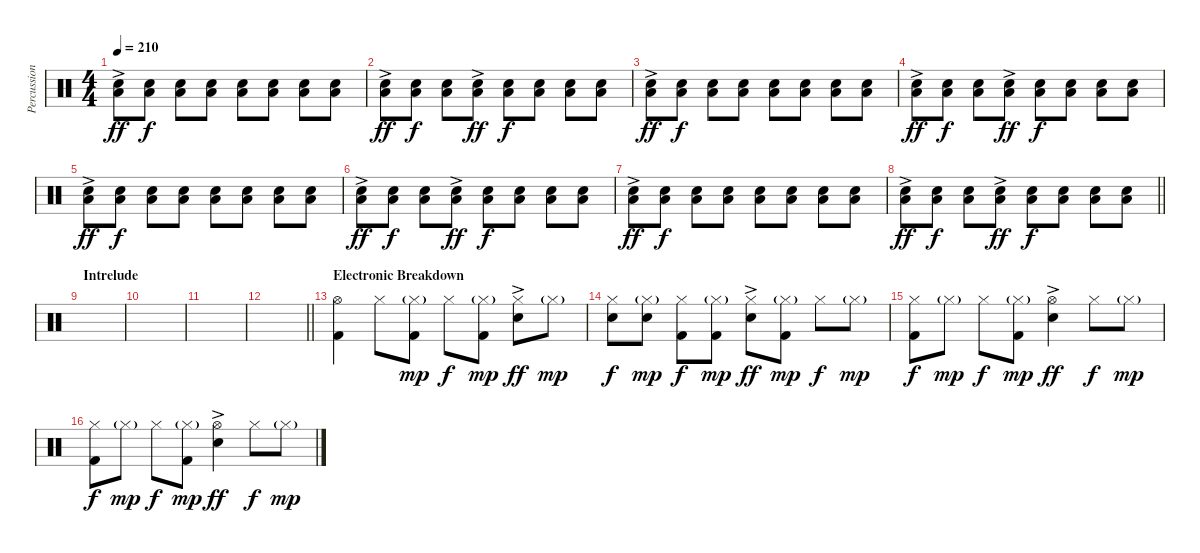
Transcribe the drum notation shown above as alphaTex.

\track ("Percussion" "Percussion") {instrument percussion}
\staff {score}
\articulation defaults
\ts (4 4)
\tempo 210
\clef neutral
\ks c
("Electric Snare (hit)"{ac} "Low Floor Tom (hit)"{ac}).8{dy ff} ("Electric Snare (hit)" "Low Floor Tom (hit)").8{dy f} ("Electric Snare (hit)" "Low Floor Tom (hit)").8 ("Electric Snare (hit)" "Low Floor Tom (hit)").8 ("Electric Snare (hit)" "Low Floor Tom (hit)").8 ("Electric Snare (hit)" "Low Floor Tom (hit)").8 ("Electric Snare (hit)" "Low Floor Tom (hit)").8 ("Electric Snare (hit)" "Low Floor Tom (hit)").8 |
("Electric Snare (hit)"{ac} "Low Floor Tom (hit)"{ac}).8{dy ff} ("Electric Snare (hit)" "Low Floor Tom (hit)").8{dy f} ("Electric Snare (hit)" "Low Floor Tom (hit)").8 ("Electric Snare (hit)"{ac} "Low Floor Tom (hit)"{ac}).8{dy ff} ("Electric Snare (hit)" "Low Floor Tom (hit)").8{dy f} ("Electric Snare (hit)" "Low Floor Tom (hit)").8 ("Electric Snare (hit)" "Low Floor Tom (hit)").8 ("Electric Snare (hit)" "Low Floor Tom (hit)").8 |
("Electric Snare (hit)"{ac} "Low Floor Tom (hit)"{ac}).8{dy ff} ("Electric Snare (hit)" "Low Floor Tom (hit)").8{dy f} ("Electric Snare (hit)" "Low Floor Tom (hit)").8 ("Electric Snare (hit)" "Low Floor Tom (hit)").8 ("Electric Snare (hit)" "Low Floor Tom (hit)").8 ("Electric Snare (hit)" "Low Floor Tom (hit)").8 ("Electric Snare (hit)" "Low Floor Tom (hit)").8 ("Electric Snare (hit)" "Low Floor Tom (hit)").8 |
("Electric Snare (hit)"{ac} "Low Floor Tom (hit)"{ac}).8{dy ff} ("Electric Snare (hit)" "Low Floor Tom (hit)").8{dy f} ("Electric Snare (hit)" "Low Floor Tom (hit)").8 ("Electric Snare (hit)"{ac} "Low Floor Tom (hit)"{ac}).8{dy ff} ("Electric Snare (hit)" "Low Floor Tom (hit)").8{dy f} ("Electric Snare (hit)" "Low Floor Tom (hit)").8 ("Electric Snare (hit)" "Low Floor Tom (hit)").8 ("Electric Snare (hit)" "Low Floor Tom (hit)").8 |
("Electric Snare (hit)"{ac} "Low Floor Tom (hit)"{ac}).8{dy ff} ("Electric Snare (hit)" "Low Floor Tom (hit)").8{dy f} ("Electric Snare (hit)" "Low Floor Tom (hit)").8 ("Electric Snare (hit)" "Low Floor Tom (hit)").8 ("Electric Snare (hit)" "Low Floor Tom (hit)").8 ("Electric Snare (hit)" "Low Floor Tom (hit)").8 ("Electric Snare (hit)" "Low Floor Tom (hit)").8 ("Electric Snare (hit)" "Low Floor Tom (hit)").8 |
("Electric Snare (hit)"{ac} "Low Floor Tom (hit)"{ac}).8{dy ff} ("Electric Snare (hit)" "Low Floor Tom (hit)").8{dy f} ("Electric Snare (hit)" "Low Floor Tom (hit)").8 ("Electric Snare (hit)"{ac} "Low Floor Tom (hit)"{ac}).8{dy ff} ("Electric Snare (hit)" "Low Floor Tom (hit)").8{dy f} ("Electric Snare (hit)" "Low Floor Tom (hit)").8 ("Electric Snare (hit)" "Low Floor Tom (hit)").8 ("Electric Snare (hit)" "Low Floor Tom (hit)").8 |
("Electric Snare (hit)"{ac} "Low Floor Tom (hit)"{ac}).8{dy ff} ("Electric Snare (hit)" "Low Floor Tom (hit)").8{dy f} ("Electric Snare (hit)" "Low Floor Tom (hit)").8 ("Electric Snare (hit)" "Low Floor Tom (hit)").8 ("Electric Snare (hit)" "Low Floor Tom (hit)").8 ("Electric Snare (hit)" "Low Floor Tom (hit)").8 ("Electric Snare (hit)" "Low Floor Tom (hit)").8 ("Electric Snare (hit)" "Low Floor Tom (hit)").8 |
\barLineRight lightlight
("Electric Snare (hit)"{ac} "Low Floor Tom (hit)"{ac}).8{dy ff} ("Electric Snare (hit)" "Low Floor Tom (hit)").8{dy f} ("Electric Snare (hit)" "Low Floor Tom (hit)").8 ("Electric Snare (hit)"{ac} "Low Floor Tom (hit)"{ac}).8{dy ff} ("Electric Snare (hit)" "Low Floor Tom (hit)").8{dy f} ("Electric Snare (hit)" "Low Floor Tom (hit)").8 ("Electric Snare (hit)" "Low Floor Tom (hit)").8 ("Electric Snare (hit)" "Low Floor Tom (hit)").8 |
\section ("" "Intrelude")
|
|
|
\barLineRight lightlight
|
\section ("" "Electronic Breakdown")
("Hi-Hat (open)" "Kick (hit) 2").4{volume 12} "Hi-Hat (closed)".8 ("Hi-Hat (closed)"{g} "Kick (hit) 2").8{dy mp} "Hi-Hat (closed)".8{dy f} ("Hi-Hat (closed)"{g} "Kick (hit) 2").8{dy mp} ("Hi-Hat (closed)" "Electric Snare (hit)"{ac}).8{dy ff} "Hi-Hat (closed)"{g}.8{dy mp} |
("Hi-Hat (closed)" "Electric Snare (hit)").8{dy f} ("Hi-Hat (closed)"{g} "Electric Snare (hit)").8{dy mp} ("Hi-Hat (closed)" "Kick (hit) 2").8{dy f} ("Hi-Hat (closed)"{g} "Kick (hit) 2").8{dy mp} ("Hi-Hat (closed)" "Electric Snare (hit)"{ac}).8{dy ff} ("Hi-Hat (closed)"{g} "Kick (hit) 2").8{dy mp} "Hi-Hat (closed)".8{dy f} "Hi-Hat (closed)"{g}.8{dy mp} |
("Hi-Hat (closed)" "Kick (hit) 2").8{dy f} "Hi-Hat (closed)"{g}.8{dy mp} "Hi-Hat (closed)".8{dy f} ("Hi-Hat (closed)"{g} "Kick (hit) 2").8{dy mp} ("Hi-Hat (open)" "Electric Snare (hit)"{ac}).4{dy ff} "Hi-Hat (closed)".8{dy f} "Hi-Hat (closed)"{g}.8{dy mp} |
("Hi-Hat (closed)" "Kick (hit) 2").8{dy f} "Hi-Hat (closed)"{g}.8{dy mp} "Hi-Hat (closed)".8{dy f} ("Hi-Hat (closed)"{g} "Kick (hit) 2").8{dy mp} ("Hi-Hat (open)" "Electric Snare (hit)"{ac}).4{dy ff} "Hi-Hat (closed)".8{dy f} "Hi-Hat (closed)"{g}.8{dy mp}
